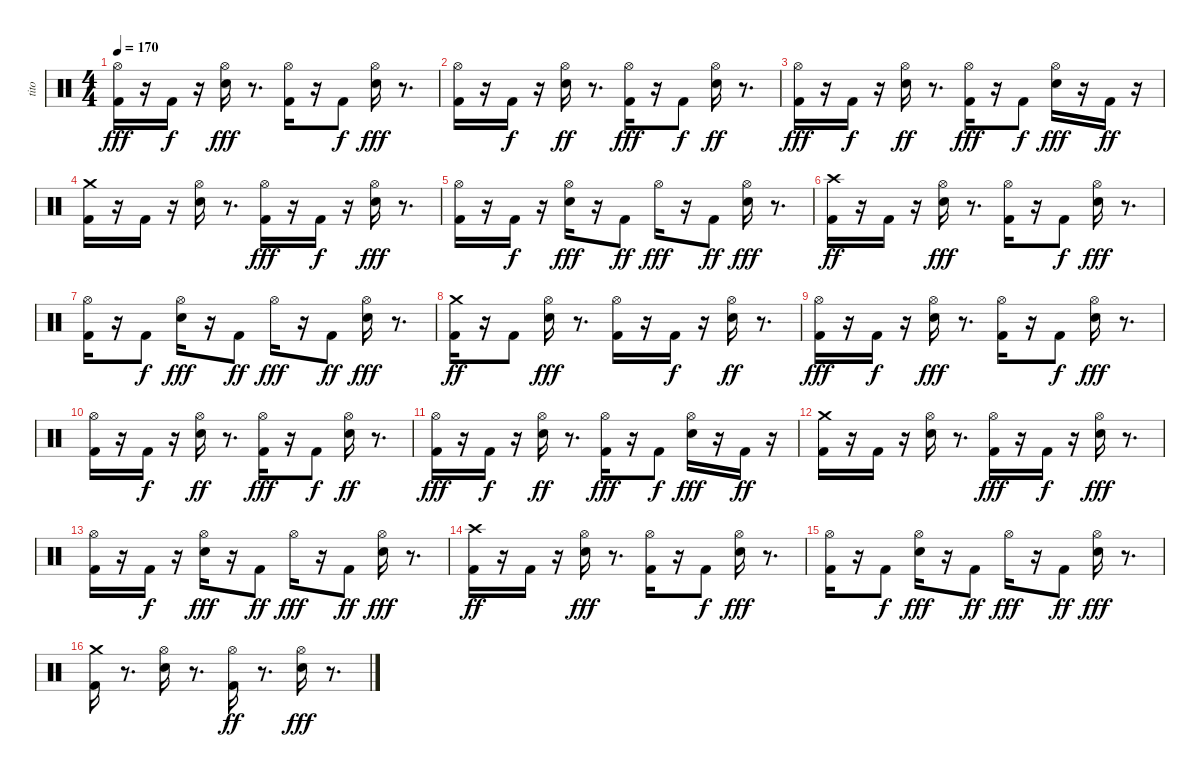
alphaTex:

\track ("tito" "tito") {instrument percussion}
\staff {score}
\articulation defaults
\ts (4 4)
\tempo 170
\clef neutral
\ks c
("Hi-Hat (open)" "Kick (hit) 2").16{dy fff} r.16 "Kick (hit) 2".16{dy f} r.16 ("Snare (hit) 2" "Hi-Hat (open)").16{dy fff} r.8{d} ("Kick (hit) 2" "Hi-Hat (open)").16 r.16 "Kick (hit) 2".8{dy f} ("Snare (hit) 2" "Hi-Hat (open)").16{dy fff} r.8{d} |
("Kick (hit) 2" "Hi-Hat (open)").16 r.16 "Kick (hit) 2".16{dy f} r.16 ("Hi-Hat (open)" "Snare (hit) 2").16{dy ff} r.8{d} ("Kick (hit) 2" "Hi-Hat (open)").16{dy fff} r.16 "Kick (hit) 2".8{dy f} ("Hi-Hat (open)" "Snare (hit) 2").16{dy ff} r.8{d} |
("Kick (hit) 2" "Hi-Hat (open)").16{dy fff} r.16 "Kick (hit) 2".16{dy f} r.16 ("Hi-Hat (open)" "Snare (hit) 2").16{dy ff} r.8{d} ("Kick (hit) 2" "Hi-Hat (open)").16{dy fff} r.16 "Kick (hit) 2".8{dy f} ("Snare (hit) 2" "Hi-Hat (open)").16{dy fff} r.16 "Kick (hit) 2".16{dy ff} r.16 |
("Crash medium (hit)" "Kick (hit) 2").16 r.16 "Kick (hit) 2".16 r.16 ("Snare (hit) 2" "Hi-Hat (open)").16 r.8{d} ("Kick (hit) 2" "Hi-Hat (open)").16{dy fff} r.16 "Kick (hit) 2".16{dy f} r.16 ("Snare (hit) 2" "Hi-Hat (open)").16{dy fff} r.8{d} |
("Kick (hit) 2" "Hi-Hat (open)").16 r.16 "Kick (hit) 2".16{dy f} r.16 ("Snare (hit) 2" "Hi-Hat (open)").16{dy fff} r.16 "Kick (hit) 2".8{dy ff} "Hi-Hat (open)".16{dy fff} r.16 "Kick (hit) 2".8{dy ff} ("Snare (hit) 2" "Hi-Hat (open)").16{dy fff} r.8{d} |
("Crash high (hit)" "Kick (hit) 2").16{dy ff} r.16 "Kick (hit) 2".16 r.16 ("Hi-Hat (open)" "Snare (hit) 2").16{dy fff} r.8{d} ("Kick (hit) 2" "Hi-Hat (open)").16 r.16 "Kick (hit) 2".8{dy f} ("Snare (hit) 2" "Hi-Hat (open)").16{dy fff} r.8{d} |
("Kick (hit) 2" "Hi-Hat (open)").16 r.16 "Kick (hit) 2".8{dy f} ("Snare (hit) 2" "Hi-Hat (open)").16{dy fff} r.16 "Kick (hit) 2".8{dy ff} "Hi-Hat (open)".16{dy fff} r.16 "Kick (hit) 2".8{dy ff} ("Snare (hit) 2" "Hi-Hat (open)").16{dy fff} r.8{d} |
("Kick (hit) 2" "Crash medium (hit)").16{dy ff} r.16 "Kick (hit) 2".8 ("Hi-Hat (open)" "Snare (hit) 2").16{dy fff} r.8{d} ("Kick (hit) 2" "Hi-Hat (open)").16 r.16 "Kick (hit) 2".16{dy f} r.16 ("Hi-Hat (open)" "Snare (hit) 2").16{dy ff} r.8{d} |
("Hi-Hat (open)" "Kick (hit) 2").16{dy fff} r.16 "Kick (hit) 2".16{dy f} r.16 ("Snare (hit) 2" "Hi-Hat (open)").16{dy fff} r.8{d} ("Kick (hit) 2" "Hi-Hat (open)").16 r.16 "Kick (hit) 2".8{dy f} ("Snare (hit) 2" "Hi-Hat (open)").16{dy fff} r.8{d} |
("Kick (hit) 2" "Hi-Hat (open)").16 r.16 "Kick (hit) 2".16{dy f} r.16 ("Hi-Hat (open)" "Snare (hit) 2").16{dy ff} r.8{d} ("Kick (hit) 2" "Hi-Hat (open)").16{dy fff} r.16 "Kick (hit) 2".8{dy f} ("Hi-Hat (open)" "Snare (hit) 2").16{dy ff} r.8{d} |
("Kick (hit) 2" "Hi-Hat (open)").16{dy fff} r.16 "Kick (hit) 2".16{dy f} r.16 ("Hi-Hat (open)" "Snare (hit) 2").16{dy ff} r.8{d} ("Kick (hit) 2" "Hi-Hat (open)").16{dy fff} r.16 "Kick (hit) 2".8{dy f} ("Snare (hit) 2" "Hi-Hat (open)").16{dy fff} r.16 "Kick (hit) 2".16{dy ff} r.16 |
("Crash medium (hit)" "Kick (hit) 2").16 r.16 "Kick (hit) 2".16 r.16 ("Snare (hit) 2" "Hi-Hat (open)").16 r.8{d} ("Kick (hit) 2" "Hi-Hat (open)").16{dy fff} r.16 "Kick (hit) 2".16{dy f} r.16 ("Snare (hit) 2" "Hi-Hat (open)").16{dy fff} r.8{d} |
("Kick (hit) 2" "Hi-Hat (open)").16 r.16 "Kick (hit) 2".16{dy f} r.16 ("Snare (hit) 2" "Hi-Hat (open)").16{dy fff} r.16 "Kick (hit) 2".8{dy ff} "Hi-Hat (open)".16{dy fff} r.16 "Kick (hit) 2".8{dy ff} ("Snare (hit) 2" "Hi-Hat (open)").16{dy fff} r.8{d} |
("Crash high (hit)" "Kick (hit) 2").16{dy ff} r.16 "Kick (hit) 2".16 r.16 ("Hi-Hat (open)" "Snare (hit) 2").16{dy fff} r.8{d} ("Kick (hit) 2" "Hi-Hat (open)").16 r.16 "Kick (hit) 2".8{dy f} ("Snare (hit) 2" "Hi-Hat (open)").16{dy fff} r.8{d} |
("Kick (hit) 2" "Hi-Hat (open)").16 r.16 "Kick (hit) 2".8{dy f} ("Snare (hit) 2" "Hi-Hat (open)").16{dy fff} r.16 "Kick (hit) 2".8{dy ff} "Hi-Hat (open)".16{dy fff} r.16 "Kick (hit) 2".8{dy ff} ("Snare (hit) 2" "Hi-Hat (open)").16{dy fff} r.8{d} |
("Crash medium (hit)" "Kick (hit) 2").16 r.8{d} ("Snare (hit) 2" "Hi-Hat (open)").16 r.8{d} ("Hi-Hat (open)" "Kick (hit) 2").16{dy ff} r.8{d} ("Hi-Hat (open)" "Snare (hit) 2").16{dy fff} r.8{d}
